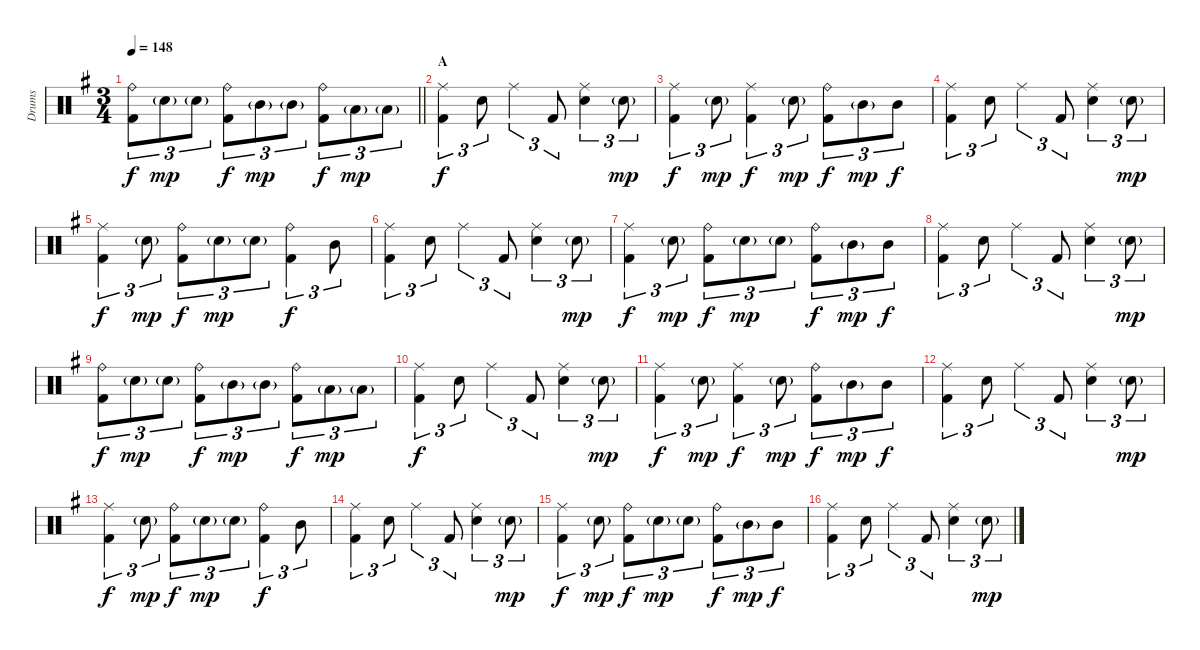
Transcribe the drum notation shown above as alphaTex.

\track ("Drums" "Drums") {instrument percussion}
\staff {score}
\articulation defaults
\ts (3 4)
\tempo 148
\clef neutral
\barLineRight lightlight
\ks g
("Ride (bell)" "Kick (hit) 2").8{tu (3 2) dy f} "Electric Snare (hit)"{g}.8{tu (3 2) dy mp} "Electric Snare (hit)"{g}.8{tu (3 2)} ("Ride (bell)" "Kick (hit) 2").8{tu (3 2) dy f} "Mid Tom (hit)"{g}.8{tu (3 2) dy mp} "Mid Tom (hit)"{g}.8{tu (3 2)} ("Ride (bell)" "Kick (hit) 2").8{tu (3 2) dy f} "Low Tom (hit)"{g}.8{tu (3 2) dy mp} "Low Tom (hit)"{g}.8{tu (3 2)} |
\section ("" "A")
("Ride (middle)" "Kick (hit) 2").4{tu (3 2) dy f} "Electric Snare (hit)".8{tu (3 2)} "Ride (middle)".4{tu (3 2)} "Kick (hit) 2".8{tu (3 2)} ("Ride (middle)" "Electric Snare (hit)").4{tu (3 2)} "Electric Snare (hit)"{g}.8{tu (3 2) dy mp} |
("Ride (middle)" "Kick (hit) 2").4{tu (3 2) dy f} "Electric Snare (hit)"{g}.8{tu (3 2) dy mp} ("Ride (middle)" "Kick (hit) 2").4{tu (3 2) dy f} "Electric Snare (hit)"{g}.8{tu (3 2) dy mp} ("Ride (bell)" "Kick (hit) 2").8{tu (3 2) dy f} "Mid Tom (hit)"{g}.8{tu (3 2) dy mp} "Mid Tom (hit)".8{tu (3 2) dy f} |
("Ride (middle)" "Kick (hit) 2").4{tu (3 2)} "Electric Snare (hit)".8{tu (3 2)} "Ride (middle)".4{tu (3 2)} "Kick (hit) 2".8{tu (3 2)} ("Ride (middle)" "Electric Snare (hit)").4{tu (3 2)} "Electric Snare (hit)"{g}.8{tu (3 2) dy mp} |
("Ride (middle)" "Kick (hit) 2").4{tu (3 2) dy f} "Electric Snare (hit)"{g}.8{tu (3 2) dy mp} ("Ride (bell)" "Kick (hit) 2").8{tu (3 2) dy f} "Electric Snare (hit)"{g}.8{tu (3 2) dy mp} "Electric Snare (hit)"{g}.8{tu (3 2)} ("Ride (bell)" "Kick (hit) 2").4{tu (3 2) dy f} "Mid Tom (hit)".8{tu (3 2)} |
("Ride (middle)" "Kick (hit) 2").4{tu (3 2)} "Electric Snare (hit)".8{tu (3 2)} "Ride (middle)".4{tu (3 2)} "Kick (hit) 2".8{tu (3 2)} ("Ride (middle)" "Electric Snare (hit)").4{tu (3 2)} "Electric Snare (hit)"{g}.8{tu (3 2) dy mp} |
("Ride (middle)" "Kick (hit) 2").4{tu (3 2) dy f} "Electric Snare (hit)"{g}.8{tu (3 2) dy mp} ("Ride (bell)" "Kick (hit) 2").8{tu (3 2) dy f} "Electric Snare (hit)"{g}.8{tu (3 2) dy mp} "Electric Snare (hit)"{g}.8{tu (3 2)} ("Ride (bell)" "Kick (hit) 2").8{tu (3 2) dy f} "Mid Tom (hit)"{g}.8{tu (3 2) dy mp} "Mid Tom (hit)".8{tu (3 2) dy f} |
("Ride (middle)" "Kick (hit) 2").4{tu (3 2)} "Electric Snare (hit)".8{tu (3 2)} "Ride (middle)".4{tu (3 2)} "Kick (hit) 2".8{tu (3 2)} ("Ride (middle)" "Electric Snare (hit)").4{tu (3 2)} "Electric Snare (hit)"{g}.8{tu (3 2) dy mp} |
("Ride (bell)" "Kick (hit) 2").8{tu (3 2) dy f} "Electric Snare (hit)"{g}.8{tu (3 2) dy mp} "Electric Snare (hit)"{g}.8{tu (3 2)} ("Ride (bell)" "Kick (hit) 2").8{tu (3 2) dy f} "Mid Tom (hit)"{g}.8{tu (3 2) dy mp} "Mid Tom (hit)"{g}.8{tu (3 2)} ("Ride (bell)" "Kick (hit) 2").8{tu (3 2) dy f} "Low Tom (hit)"{g}.8{tu (3 2) dy mp} "Low Tom (hit)"{g}.8{tu (3 2)} |
("Ride (middle)" "Kick (hit) 2").4{tu (3 2) dy f} "Electric Snare (hit)".8{tu (3 2)} "Ride (middle)".4{tu (3 2)} "Kick (hit) 2".8{tu (3 2)} ("Ride (middle)" "Electric Snare (hit)").4{tu (3 2)} "Electric Snare (hit)"{g}.8{tu (3 2) dy mp} |
("Ride (middle)" "Kick (hit) 2").4{tu (3 2) dy f} "Electric Snare (hit)"{g}.8{tu (3 2) dy mp} ("Ride (middle)" "Kick (hit) 2").4{tu (3 2) dy f} "Electric Snare (hit)"{g}.8{tu (3 2) dy mp} ("Ride (bell)" "Kick (hit) 2").8{tu (3 2) dy f} "Mid Tom (hit)"{g}.8{tu (3 2) dy mp} "Mid Tom (hit)".8{tu (3 2) dy f} |
("Ride (middle)" "Kick (hit) 2").4{tu (3 2)} "Electric Snare (hit)".8{tu (3 2)} "Ride (middle)".4{tu (3 2)} "Kick (hit) 2".8{tu (3 2)} ("Ride (middle)" "Electric Snare (hit)").4{tu (3 2)} "Electric Snare (hit)"{g}.8{tu (3 2) dy mp} |
("Ride (middle)" "Kick (hit) 2").4{tu (3 2) dy f} "Electric Snare (hit)"{g}.8{tu (3 2) dy mp} ("Ride (bell)" "Kick (hit) 2").8{tu (3 2) dy f} "Electric Snare (hit)"{g}.8{tu (3 2) dy mp} "Electric Snare (hit)"{g}.8{tu (3 2)} ("Ride (bell)" "Kick (hit) 2").4{tu (3 2) dy f} "Mid Tom (hit)".8{tu (3 2)} |
("Ride (middle)" "Kick (hit) 2").4{tu (3 2)} "Electric Snare (hit)".8{tu (3 2)} "Ride (middle)".4{tu (3 2)} "Kick (hit) 2".8{tu (3 2)} ("Ride (middle)" "Electric Snare (hit)").4{tu (3 2)} "Electric Snare (hit)"{g}.8{tu (3 2) dy mp} |
("Ride (middle)" "Kick (hit) 2").4{tu (3 2) dy f} "Electric Snare (hit)"{g}.8{tu (3 2) dy mp} ("Ride (bell)" "Kick (hit) 2").8{tu (3 2) dy f} "Electric Snare (hit)"{g}.8{tu (3 2) dy mp} "Electric Snare (hit)"{g}.8{tu (3 2)} ("Ride (bell)" "Kick (hit) 2").8{tu (3 2) dy f} "Mid Tom (hit)"{g}.8{tu (3 2) dy mp} "Mid Tom (hit)".8{tu (3 2) dy f} |
("Ride (middle)" "Kick (hit) 2").4{tu (3 2)} "Electric Snare (hit)".8{tu (3 2)} "Ride (middle)".4{tu (3 2)} "Kick (hit) 2".8{tu (3 2)} ("Ride (middle)" "Electric Snare (hit)").4{tu (3 2)} "Electric Snare (hit)"{g}.8{tu (3 2) dy mp}
